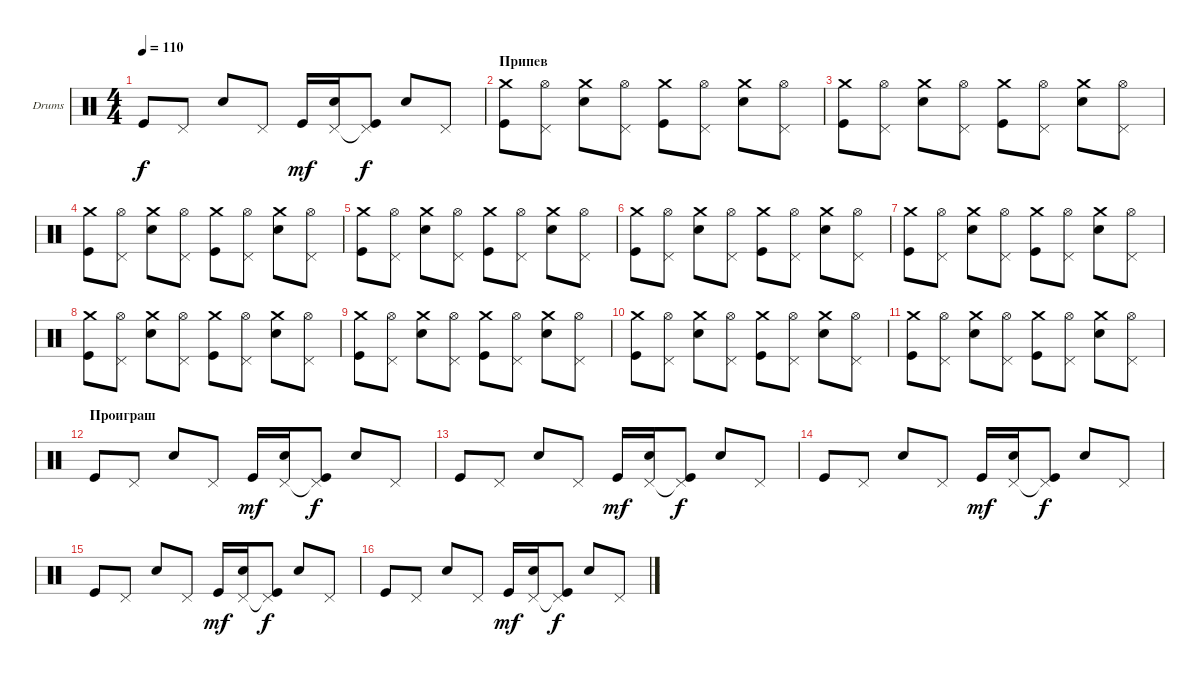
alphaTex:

\defaultSystemsLayout 4
\bracketExtendMode groupsimilarinstruments
\firstSystemTrackNameOrientation horizontal
\otherSystemsTrackNameOrientation horizontal
\track ("Е. Кулаков" "Drums") {instrument percussion}
\staff {score}
\articulation defaults
\ts (4 4)
\tempo 110
\clef neutral
\ks c "Kick (hit)".8{dy f} "Pedal Hi-Hat (hit)".8 "Snare (hit) 2".8 "Pedal Hi-Hat (hit)".8 "Kick (hit)".16{dy mf}
("Snare (hit) 2" "Pedal Hi-Hat (hit)").16 ("Kick (hit)" "Pedal Hi-Hat (hit)"{t}).8{dy f} "Snare (hit) 2".8 "Pedal Hi-Hat (hit)".8 |
\section ("" "Припев")
("Kick (hit)" "Crash medium (hit)").8 ("Pedal Hi-Hat (hit)" "Hi-Hat (open)").8 ("Snare (hit) 2" "Crash medium (hit)").8 ("Pedal Hi-Hat (hit)" "Hi-Hat (open)").8 ("Kick (hit)" "Crash medium (hit)").8 ("Pedal Hi-Hat (hit)" "Hi-Hat (open)").8 ("Snare (hit) 2" "Crash medium (hit)").8 ("Pedal Hi-Hat (hit)" "Hi-Hat (open)").8 |
("Kick (hit)" "Crash medium (hit)").8 ("Pedal Hi-Hat (hit)" "Hi-Hat (open)").8 ("Snare (hit) 2" "Crash medium (hit)").8 ("Pedal Hi-Hat (hit)" "Hi-Hat (open)").8 ("Kick (hit)" "Crash medium (hit)").8 ("Pedal Hi-Hat (hit)" "Hi-Hat (open)").8 ("Snare (hit) 2" "Crash medium (hit)").8 ("Pedal Hi-Hat (hit)" "Hi-Hat (open)").8 |
("Kick (hit)" "Crash medium (hit)").8 ("Pedal Hi-Hat (hit)" "Hi-Hat (open)").8 ("Snare (hit) 2" "Crash medium (hit)").8 ("Pedal Hi-Hat (hit)" "Hi-Hat (open)").8 ("Kick (hit)" "Crash medium (hit)").8 ("Pedal Hi-Hat (hit)" "Hi-Hat (open)").8 ("Snare (hit) 2" "Crash medium (hit)").8 ("Pedal Hi-Hat (hit)" "Hi-Hat (open)").8 |
("Kick (hit)" "Crash medium (hit)").8 ("Pedal Hi-Hat (hit)" "Hi-Hat (open)").8 ("Snare (hit) 2" "Crash medium (hit)").8 ("Pedal Hi-Hat (hit)" "Hi-Hat (open)").8 ("Kick (hit)" "Crash medium (hit)").8 ("Pedal Hi-Hat (hit)" "Hi-Hat (open)").8 ("Snare (hit) 2" "Crash medium (hit)").8 ("Pedal Hi-Hat (hit)" "Hi-Hat (open)").8 |
("Kick (hit)" "Crash medium (hit)").8 ("Pedal Hi-Hat (hit)" "Hi-Hat (open)").8 ("Snare (hit) 2" "Crash medium (hit)").8 ("Pedal Hi-Hat (hit)" "Hi-Hat (open)").8 ("Kick (hit)" "Crash medium (hit)").8 ("Pedal Hi-Hat (hit)" "Hi-Hat (open)").8 ("Snare (hit) 2" "Crash medium (hit)").8 ("Pedal Hi-Hat (hit)" "Hi-Hat (open)").8 |
("Kick (hit)" "Crash medium (hit)").8 ("Pedal Hi-Hat (hit)" "Hi-Hat (open)").8 ("Snare (hit) 2" "Crash medium (hit)").8 ("Pedal Hi-Hat (hit)" "Hi-Hat (open)").8 ("Kick (hit)" "Crash medium (hit)").8 ("Pedal Hi-Hat (hit)" "Hi-Hat (open)").8 ("Snare (hit) 2" "Crash medium (hit)").8 ("Pedal Hi-Hat (hit)" "Hi-Hat (open)").8 |
("Kick (hit)" "Crash medium (hit)").8 ("Pedal Hi-Hat (hit)" "Hi-Hat (open)").8 ("Snare (hit) 2" "Crash medium (hit)").8 ("Pedal Hi-Hat (hit)" "Hi-Hat (open)").8 ("Kick (hit)" "Crash medium (hit)").8 ("Pedal Hi-Hat (hit)" "Hi-Hat (open)").8 ("Snare (hit) 2" "Crash medium (hit)").8 ("Pedal Hi-Hat (hit)" "Hi-Hat (open)").8 |
("Kick (hit)" "Crash medium (hit)").8 ("Pedal Hi-Hat (hit)" "Hi-Hat (open)").8 ("Snare (hit) 2" "Crash medium (hit)").8 ("Pedal Hi-Hat (hit)" "Hi-Hat (open)").8 ("Kick (hit)" "Crash medium (hit)").8 ("Pedal Hi-Hat (hit)" "Hi-Hat (open)").8 ("Snare (hit) 2" "Crash medium (hit)").8 ("Pedal Hi-Hat (hit)" "Hi-Hat (open)").8 |
("Kick (hit)" "Crash medium (hit)").8 ("Pedal Hi-Hat (hit)" "Hi-Hat (open)").8 ("Snare (hit) 2" "Crash medium (hit)").8 ("Pedal Hi-Hat (hit)" "Hi-Hat (open)").8 ("Kick (hit)" "Crash medium (hit)").8 ("Pedal Hi-Hat (hit)" "Hi-Hat (open)").8 ("Snare (hit) 2" "Crash medium (hit)").8 ("Pedal Hi-Hat (hit)" "Hi-Hat (open)").8 |
("Kick (hit)" "Crash medium (hit)").8 ("Pedal Hi-Hat (hit)" "Hi-Hat (open)").8 ("Snare (hit) 2" "Crash medium (hit)").8 ("Pedal Hi-Hat (hit)" "Hi-Hat (open)").8 ("Kick (hit)" "Crash medium (hit)").8 ("Pedal Hi-Hat (hit)" "Hi-Hat (open)").8 ("Snare (hit) 2" "Crash medium (hit)").8 ("Pedal Hi-Hat (hit)" "Hi-Hat (open)").8 |
\section ("" "Проиграш")
"Kick (hit)".8 "Pedal Hi-Hat (hit)".8 "Snare (hit) 2".8 "Pedal Hi-Hat (hit)".8 "Kick (hit)".16{dy mf} ("Snare (hit) 2" "Pedal Hi-Hat (hit)").16 ("Kick (hit)" "Pedal Hi-Hat (hit)"{t}).8{dy f} "Snare (hit) 2".8 "Pedal Hi-Hat (hit)".8 |
"Kick (hit)".8 "Pedal Hi-Hat (hit)".8 "Snare (hit) 2".8 "Pedal Hi-Hat (hit)".8 "Kick (hit)".16{dy mf} ("Snare (hit) 2" "Pedal Hi-Hat (hit)").16 ("Kick (hit)" "Pedal Hi-Hat (hit)"{t}).8{dy f} "Snare (hit) 2".8 "Pedal Hi-Hat (hit)".8 |
"Kick (hit)".8 "Pedal Hi-Hat (hit)".8 "Snare (hit) 2".8 "Pedal Hi-Hat (hit)".8 "Kick (hit)".16{dy mf} ("Snare (hit) 2" "Pedal Hi-Hat (hit)").16 ("Kick (hit)" "Pedal Hi-Hat (hit)"{t}).8{dy f} "Snare (hit) 2".8 "Pedal Hi-Hat (hit)".8 |
"Kick (hit)".8 "Pedal Hi-Hat (hit)".8 "Snare (hit) 2".8 "Pedal Hi-Hat (hit)".8 "Kick (hit)".16{dy mf} ("Snare (hit) 2" "Pedal Hi-Hat (hit)").16 ("Kick (hit)" "Pedal Hi-Hat (hit)"{t}).8{dy f} "Snare (hit) 2".8 "Pedal Hi-Hat (hit)".8 |
"Kick (hit)".8 "Pedal Hi-Hat (hit)".8 "Snare (hit) 2".8 "Pedal Hi-Hat (hit)".8 "Kick (hit)".16{dy mf} ("Snare (hit) 2" "Pedal Hi-Hat (hit)").16 ("Kick (hit)" "Pedal Hi-Hat (hit)"{t}).8{dy f} "Snare (hit) 2".8 "Pedal Hi-Hat (hit)".8
